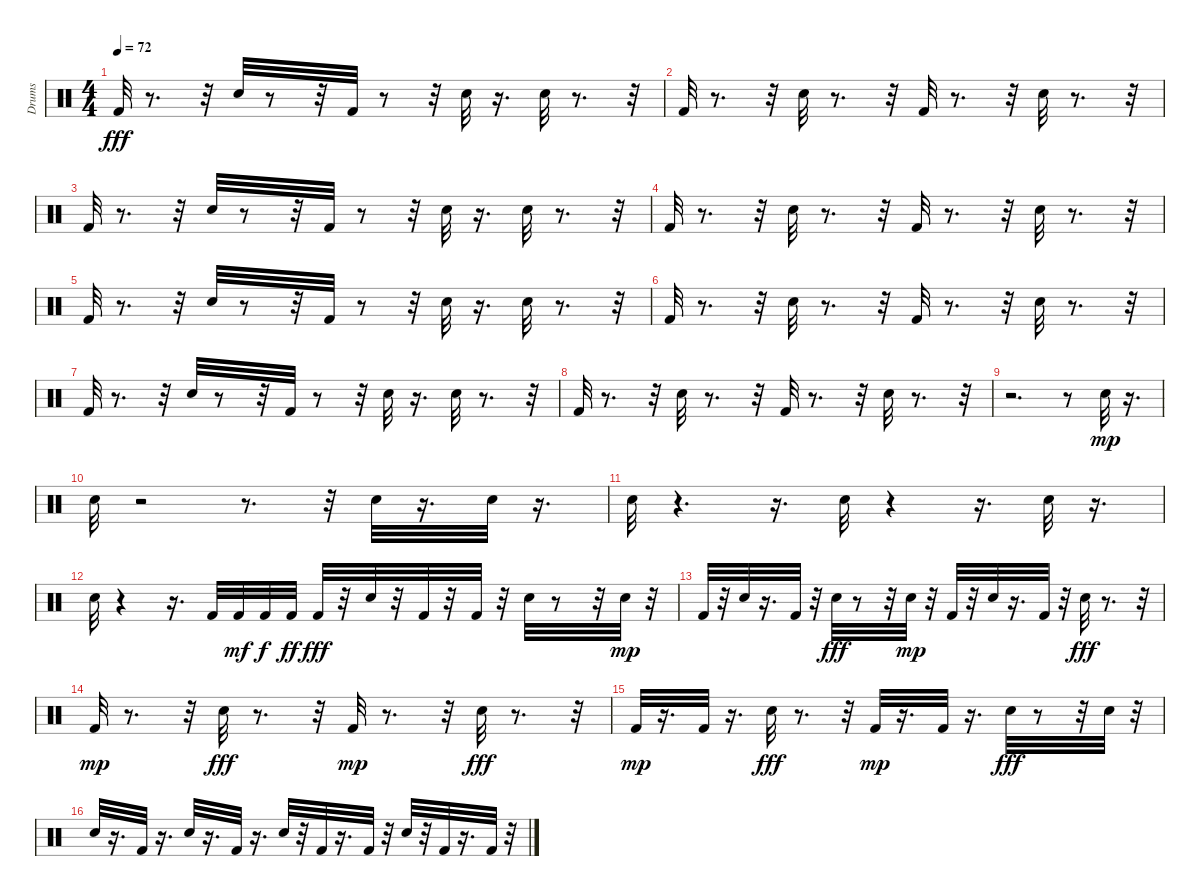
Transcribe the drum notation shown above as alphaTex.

\track ("Drums" "Drums") {instrument percussion}
\staff {score}
\articulation defaults
\ts (4 4)
\tempo 72
\clef neutral
\ks c "Kick (hit) 2".32{dy fff}
r.8{d} r.32 "Snare (hit) 2".32 r.8 r.32 "Kick (hit) 2".32 r.8 r.32 "Snare (hit) 2".32 r.16{d} "Snare (hit) 2".32 r.8{d} r.32 |
"Kick (hit) 2".32 r.8{d} r.32 "Snare (hit) 2".32 r.8{d} r.32 "Kick (hit) 2".32 r.8{d} r.32 "Snare (hit) 2".32 r.8{d} r.32 |
"Kick (hit) 2".32 r.8{d} r.32 "Snare (hit) 2".32 r.8 r.32 "Kick (hit) 2".32 r.8 r.32 "Snare (hit) 2".32 r.16{d} "Snare (hit) 2".32 r.8{d} r.32 |
"Kick (hit) 2".32 r.8{d} r.32 "Snare (hit) 2".32 r.8{d} r.32 "Kick (hit) 2".32 r.8{d} r.32 "Snare (hit) 2".32 r.8{d} r.32 |
"Kick (hit) 2".32 r.8{d} r.32 "Snare (hit) 2".32 r.8 r.32 "Kick (hit) 2".32 r.8 r.32 "Snare (hit) 2".32 r.16{d} "Snare (hit) 2".32 r.8{d} r.32 |
"Kick (hit) 2".32 r.8{d} r.32 "Snare (hit) 2".32 r.8{d} r.32 "Kick (hit) 2".32 r.8{d} r.32 "Snare (hit) 2".32 r.8{d} r.32 |
"Kick (hit) 2".32 r.8{d} r.32 "Snare (hit) 2".32 r.8 r.32 "Kick (hit) 2".32 r.8 r.32 "Snare (hit) 2".32 r.16{d} "Snare (hit) 2".32 r.8{d} r.32 |
"Kick (hit) 2".32 r.8{d} r.32 "Snare (hit) 2".32 r.8{d} r.32 "Kick (hit) 2".32 r.8{d} r.32 "Snare (hit) 2".32 r.8{d} r.32 |
r.2{d} r.8 "Snare (hit) 2".32{dy mp} r.16{d} |
"Snare (hit) 2".32 r.2 r.8{d} r.32 "Snare (hit) 2".32 r.16{d} "Snare (hit) 2".32 r.16{d} |
"Snare (hit) 2".32 r.4{d} r.16{d} "Snare (hit) 2".32 r.4 r.16{d} "Snare (hit) 2".32 r.16{d} |
"Snare (hit) 2".32 r.4 r.16{d} "Kick (hit) 2".32 "Kick (hit) 2".32{dy mf} "Kick (hit) 2".32{dy f} "Kick (hit) 2".32{dy ff} "Kick (hit) 2".32{dy fff} r.32 "Snare (hit) 2".32 r.32 "Kick (hit) 2".32 r.32 "Kick (hit) 2".32 r.32 "Snare (hit) 2".32 r.8 r.32 "Snare (hit) 2".32{dy mp} r.32 |
"Kick (hit) 2".32 r.32 "Snare (hit) 2".32 r.16{d} "Kick (hit) 2".32 r.32 "Snare (hit) 2".32{dy fff} r.8 r.32 "Snare (hit) 2".32{dy mp} r.32 "Kick (hit) 2".32 r.32 "Snare (hit) 2".32 r.16{d} "Kick (hit) 2".32 r.32 "Snare (hit) 2".32{dy fff} r.8{d} r.32 |
"Kick (hit) 2".32{dy mp} r.8{d} r.32 "Snare (hit) 2".32{dy fff} r.8{d} r.32 "Kick (hit) 2".32{dy mp} r.8{d} r.32 "Snare (hit) 2".32{dy fff} r.8{d} r.32 |
"Kick (hit) 2".32{dy mp} r.16{d} "Kick (hit) 2".32 r.16{d} "Snare (hit) 2".32{dy fff} r.8{d} r.32 "Kick (hit) 2".32{dy mp} r.16{d} "Kick (hit) 2".32 r.16{d} "Snare (hit) 2".32{dy fff} r.8 r.32 "Snare (hit) 2".32 r.32 |
"Snare (hit) 2".32 r.16{d} "Kick (hit) 2".32 r.16{d} "Snare (hit) 2".32 r.16{d} "Kick (hit) 2".32 r.16{d} "Snare (hit) 2".32 r.32 "Kick (hit) 2".32 r.16{d} "Kick (hit) 2".32 r.32 "Snare (hit) 2".32 r.32 "Kick (hit) 2".32 r.16{d} "Kick (hit) 2".32 r.32
